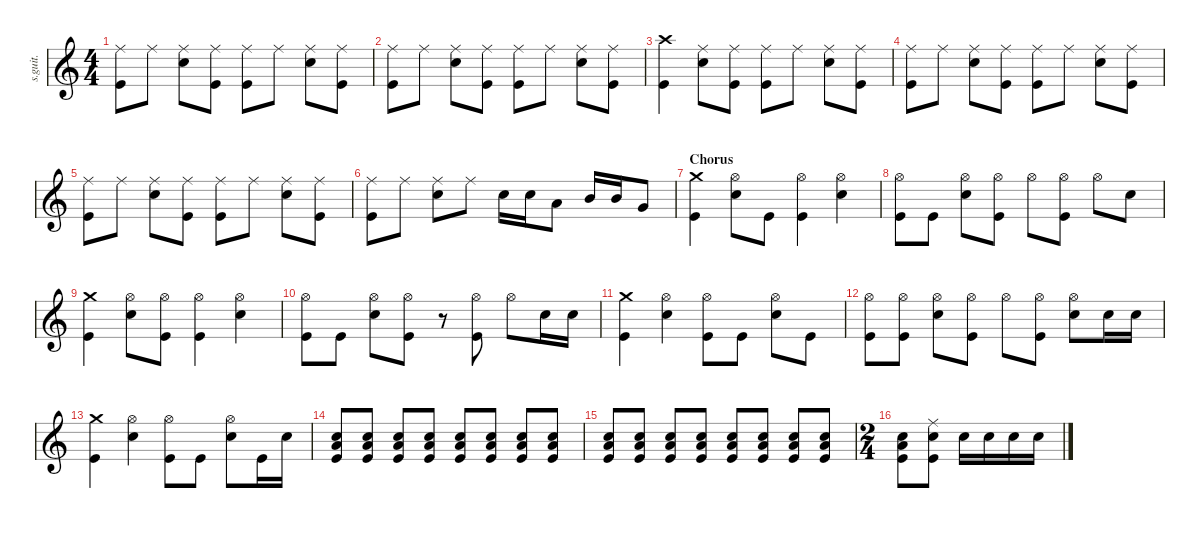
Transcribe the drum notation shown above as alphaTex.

\defaultSystemsLayout 4
\hideDynamics
\bracketExtendMode nobrackets
\track ("Chad Channing - Drums" "s.guit.") {instrument percussion}
\staff {score}
\articulation defaults
\ts (4 4)
\tempo (133 hide)
\clef g2
\ks c
("Ride (middle)" "Kick (hit)").8{lyrics (0 "") lyrics (1 "") lyrics (2 "") lyrics (3 "") lyrics (4 "") dy f} "Ride (middle)".8{lyrics (0 "") lyrics (1 "") lyrics (2 "") lyrics (3 "") lyrics (4 "")} ("Ride (middle)" "Snare (hit) 2").8{lyrics (0 "") lyrics (1 "") lyrics (2 "") lyrics (3 "") lyrics (4 "")} ("Ride (middle)" "Kick (hit)").8{lyrics (0 "") lyrics (1 "") lyrics (2 "") lyrics (3 "") lyrics (4 "")} ("Ride (middle)" "Kick (hit)").8{lyrics (0 "") lyrics (1 "") lyrics (2 "") lyrics (3 "") lyrics (4 "")} "Ride (middle)".8{lyrics (0 "") lyrics (1 "") lyrics (2 "") lyrics (3 "") lyrics (4 "")} ("Ride (middle)" "Snare (hit) 2").8{lyrics (0 "") lyrics (1 "") lyrics (2 "") lyrics (3 "") lyrics (4 "")} ("Ride (middle)" "Kick (hit)").8{lyrics (0 "") lyrics (1 "") lyrics (2 "") lyrics (3 "") lyrics (4 "")} |
("Ride (middle)" "Kick (hit)").8{lyrics (0 "") lyrics (1 "") lyrics (2 "") lyrics (3 "") lyrics (4 "")} "Ride (middle)".8{lyrics (0 "") lyrics (1 "") lyrics (2 "") lyrics (3 "") lyrics (4 "")} ("Ride (middle)" "Snare (hit) 2").8{lyrics (0 "") lyrics (1 "") lyrics (2 "") lyrics (3 "") lyrics (4 "")} ("Ride (middle)" "Kick (hit)").8{lyrics (0 "") lyrics (1 "") lyrics (2 "") lyrics (3 "") lyrics (4 "")} ("Ride (middle)" "Kick (hit)").8{lyrics (0 "") lyrics (1 "") lyrics (2 "") lyrics (3 "") lyrics (4 "")} "Ride (middle)".8{lyrics (0 "") lyrics (1 "") lyrics (2 "") lyrics (3 "") lyrics (4 "")} ("Ride (middle)" "Snare (hit) 2").8{lyrics (0 "") lyrics (1 "") lyrics (2 "") lyrics (3 "") lyrics (4 "")} ("Ride (middle)" "Kick (hit)").8{lyrics (0 "") lyrics (1 "") lyrics (2 "") lyrics (3 "") lyrics (4 "")} |
("Kick (hit)" "Crash high (hit)").4{lyrics (0 "") lyrics (1 "") lyrics (2 "") lyrics (3 "") lyrics (4 "")} ("Ride (middle)" "Snare (hit) 2").8{lyrics (0 "") lyrics (1 "") lyrics (2 "") lyrics (3 "") lyrics (4 "")} ("Ride (middle)" "Kick (hit)").8{lyrics (0 "") lyrics (1 "") lyrics (2 "") lyrics (3 "") lyrics (4 "")} ("Ride (middle)" "Kick (hit)").8{lyrics (0 "") lyrics (1 "") lyrics (2 "") lyrics (3 "") lyrics (4 "")} "Ride (middle)".8{lyrics (0 "") lyrics (1 "") lyrics (2 "") lyrics (3 "") lyrics (4 "")} ("Ride (middle)" "Snare (hit) 2").8{lyrics (0 "") lyrics (1 "") lyrics (2 "") lyrics (3 "") lyrics (4 "")} ("Ride (middle)" "Kick (hit)").8{lyrics (0 "") lyrics (1 "") lyrics (2 "") lyrics (3 "") lyrics (4 "")} |
("Ride (middle)" "Kick (hit)").8{lyrics (0 "") lyrics (1 "") lyrics (2 "") lyrics (3 "") lyrics (4 "")} "Ride (middle)".8{lyrics (0 "") lyrics (1 "") lyrics (2 "") lyrics (3 "") lyrics (4 "")} ("Ride (middle)" "Snare (hit) 2").8{lyrics (0 "") lyrics (1 "") lyrics (2 "") lyrics (3 "") lyrics (4 "")} ("Ride (middle)" "Kick (hit)").8{lyrics (0 "") lyrics (1 "") lyrics (2 "") lyrics (3 "") lyrics (4 "")} ("Ride (middle)" "Kick (hit)").8{lyrics (0 "") lyrics (1 "") lyrics (2 "") lyrics (3 "") lyrics (4 "")} "Ride (middle)".8{lyrics (0 "") lyrics (1 "") lyrics (2 "") lyrics (3 "") lyrics (4 "")} ("Ride (middle)" "Snare (hit) 2").8{lyrics (0 "") lyrics (1 "") lyrics (2 "") lyrics (3 "") lyrics (4 "")} ("Ride (middle)" "Kick (hit)").8{lyrics (0 "") lyrics (1 "") lyrics (2 "") lyrics (3 "") lyrics (4 "")} |
("Ride (middle)" "Kick (hit)").8{lyrics (0 "") lyrics (1 "") lyrics (2 "") lyrics (3 "") lyrics (4 "")} "Ride (middle)".8{lyrics (0 "") lyrics (1 "") lyrics (2 "") lyrics (3 "") lyrics (4 "")} ("Ride (middle)" "Snare (hit) 2").8{lyrics (0 "") lyrics (1 "") lyrics (2 "") lyrics (3 "") lyrics (4 "")} ("Ride (middle)" "Kick (hit)").8{lyrics (0 "") lyrics (1 "") lyrics (2 "") lyrics (3 "") lyrics (4 "")} ("Ride (middle)" "Kick (hit)").8{lyrics (0 "") lyrics (1 "") lyrics (2 "") lyrics (3 "") lyrics (4 "")} "Ride (middle)".8{lyrics (0 "") lyrics (1 "") lyrics (2 "") lyrics (3 "") lyrics (4 "")} ("Ride (middle)" "Snare (hit) 2").8{lyrics (0 "") lyrics (1 "") lyrics (2 "") lyrics (3 "") lyrics (4 "")} ("Ride (middle)" "Kick (hit)").8{lyrics (0 "") lyrics (1 "") lyrics (2 "") lyrics (3 "") lyrics (4 "")} |
("Ride (middle)" "Kick (hit)").8{lyrics (0 "") lyrics (1 "") lyrics (2 "") lyrics (3 "") lyrics (4 "")} "Ride (middle)".8{lyrics (0 "") lyrics (1 "") lyrics (2 "") lyrics (3 "") lyrics (4 "")} ("Ride (middle)" "Snare (hit) 2").8{lyrics (0 "") lyrics (1 "") lyrics (2 "") lyrics (3 "") lyrics (4 "")} "Ride (middle)".8{lyrics (0 "") lyrics (1 "") lyrics (2 "") lyrics (3 "") lyrics (4 "")} "Snare (hit) 2".16{lyrics (0 "") lyrics (1 "") lyrics (2 "") lyrics (3 "") lyrics (4 "")} "Snare (hit) 2".16{lyrics (0 "") lyrics (1 "") lyrics (2 "") lyrics (3 "") lyrics (4 "")} "Low Tom (hit)".8{lyrics (0 "") lyrics (1 "") lyrics (2 "") lyrics (3 "") lyrics (4 "")} "Mid Tom (hit)".16{lyrics (0 "") lyrics (1 "") lyrics (2 "") lyrics (3 "") lyrics (4 "")} "Mid Tom (hit)".16{lyrics (0 "") lyrics (1 "") lyrics (2 "") lyrics (3 "") lyrics (4 "")} "Very Low Tom (hit)".8{lyrics (0 "") lyrics (1 "") lyrics (2 "") lyrics (3 "") lyrics (4 "")} |
\section ("" "Chorus")
("Crash medium (hit)" "Kick (hit)").4{lyrics (0 "") lyrics (1 "") lyrics (2 "") lyrics (3 "") lyrics (4 "")} ("Hi-Hat (open)" "Snare (hit) 2").8{lyrics (0 "") lyrics (1 "") lyrics (2 "") lyrics (3 "") lyrics (4 "")} "Kick (hit)".8{lyrics (0 "") lyrics (1 "") lyrics (2 "") lyrics (3 "") lyrics (4 "")} ("Hi-Hat (open)" "Kick (hit)").4{lyrics (0 "") lyrics (1 "") lyrics (2 "") lyrics (3 "") lyrics (4 "")} ("Hi-Hat (open)" "Snare (hit) 2").4{lyrics (0 "") lyrics (1 "") lyrics (2 "") lyrics (3 "") lyrics (4 "")} |
("Hi-Hat (open)" "Kick (hit)").8{lyrics (0 "") lyrics (1 "") lyrics (2 "") lyrics (3 "") lyrics (4 "")} "Kick (hit)".8{lyrics (0 "") lyrics (1 "") lyrics (2 "") lyrics (3 "") lyrics (4 "")} ("Hi-Hat (open)" "Snare (hit) 2").8{lyrics (0 "") lyrics (1 "") lyrics (2 "") lyrics (3 "") lyrics (4 "")} ("Hi-Hat (open)" "Kick (hit)").8{lyrics (0 "") lyrics (1 "") lyrics (2 "") lyrics (3 "") lyrics (4 "")} "Hi-Hat (open)".8{lyrics (0 "") lyrics (1 "") lyrics (2 "") lyrics (3 "") lyrics (4 "")} ("Hi-Hat (open)" "Kick (hit)").8{lyrics (0 "") lyrics (1 "") lyrics (2 "") lyrics (3 "") lyrics (4 "")} "Hi-Hat (open)".8{lyrics (0 "") lyrics (1 "") lyrics (2 "") lyrics (3 "") lyrics (4 "")} "Snare (hit) 2".8{lyrics (0 "") lyrics (1 "") lyrics (2 "") lyrics (3 "") lyrics (4 "")} |
("Crash medium (hit)" "Kick (hit)").4{lyrics (0 "") lyrics (1 "") lyrics (2 "") lyrics (3 "") lyrics (4 "")} ("Hi-Hat (open)" "Snare (hit) 2").8{lyrics (0 "") lyrics (1 "") lyrics (2 "") lyrics (3 "") lyrics (4 "")} ("Hi-Hat (open)" "Kick (hit)").8{lyrics (0 "") lyrics (1 "") lyrics (2 "") lyrics (3 "") lyrics (4 "")} ("Hi-Hat (open)" "Kick (hit)").4{lyrics (0 "") lyrics (1 "") lyrics (2 "") lyrics (3 "") lyrics (4 "")} ("Hi-Hat (open)" "Snare (hit) 2").4{lyrics (0 "") lyrics (1 "") lyrics (2 "") lyrics (3 "") lyrics (4 "")} |
("Hi-Hat (open)" "Kick (hit)").8{lyrics (0 "") lyrics (1 "") lyrics (2 "") lyrics (3 "") lyrics (4 "")} "Kick (hit)".8{lyrics (0 "") lyrics (1 "") lyrics (2 "") lyrics (3 "") lyrics (4 "")} ("Hi-Hat (open)" "Snare (hit) 2").8{lyrics (0 "") lyrics (1 "") lyrics (2 "") lyrics (3 "") lyrics (4 "")} ("Hi-Hat (open)" "Kick (hit)").8{lyrics (0 "") lyrics (1 "") lyrics (2 "") lyrics (3 "") lyrics (4 "")} r.8 ("Hi-Hat (open)" "Kick (hit)").8{lyrics (0 "") lyrics (1 "") lyrics (2 "") lyrics (3 "") lyrics (4 "")} "Hi-Hat (open)".8{lyrics (0 "") lyrics (1 "") lyrics (2 "") lyrics (3 "") lyrics (4 "")} "Snare (hit) 2".16{lyrics (0 "") lyrics (1 "") lyrics (2 "") lyrics (3 "") lyrics (4 "")} "Snare (hit) 2".16{lyrics (0 "") lyrics (1 "") lyrics (2 "") lyrics (3 "") lyrics (4 "")} |
("Crash medium (hit)" "Kick (hit)").4{lyrics (0 "") lyrics (1 "") lyrics (2 "") lyrics (3 "") lyrics (4 "")} ("Hi-Hat (open)" "Snare (hit) 2").4{lyrics (0 "") lyrics (1 "") lyrics (2 "") lyrics (3 "") lyrics (4 "")} ("Hi-Hat (open)" "Kick (hit)").8{lyrics (0 "") lyrics (1 "") lyrics (2 "") lyrics (3 "") lyrics (4 "")} "Kick (hit)".8{lyrics (0 "") lyrics (1 "") lyrics (2 "") lyrics (3 "") lyrics (4 "")} ("Hi-Hat (open)" "Snare (hit) 2").8{lyrics (0 "") lyrics (1 "") lyrics (2 "") lyrics (3 "") lyrics (4 "")} "Kick (hit)".8{lyrics (0 "") lyrics (1 "") lyrics (2 "") lyrics (3 "") lyrics (4 "")} |
("Hi-Hat (open)" "Kick (hit)").8{lyrics (0 "") lyrics (1 "") lyrics (2 "") lyrics (3 "") lyrics (4 "")} ("Hi-Hat (open)" "Kick (hit)").8{lyrics (0 "") lyrics (1 "") lyrics (2 "") lyrics (3 "") lyrics (4 "")} ("Hi-Hat (open)" "Snare (hit) 2").8{lyrics (0 "") lyrics (1 "") lyrics (2 "") lyrics (3 "") lyrics (4 "")} ("Hi-Hat (open)" "Kick (hit)").8{lyrics (0 "") lyrics (1 "") lyrics (2 "") lyrics (3 "") lyrics (4 "")} "Hi-Hat (open)".8{lyrics (0 "") lyrics (1 "") lyrics (2 "") lyrics (3 "") lyrics (4 "")} ("Hi-Hat (open)" "Kick (hit)").8{lyrics (0 "") lyrics (1 "") lyrics (2 "") lyrics (3 "") lyrics (4 "")} ("Hi-Hat (open)" "Snare (hit) 2").8{lyrics (0 "") lyrics (1 "") lyrics (2 "") lyrics (3 "") lyrics (4 "")} "Snare (hit) 2".16{lyrics (0 "") lyrics (1 "") lyrics (2 "") lyrics (3 "") lyrics (4 "")} "Snare (hit) 2".16{lyrics (0 "") lyrics (1 "") lyrics (2 "") lyrics (3 "") lyrics (4 "")} |
("Crash medium (hit)" "Kick (hit)").4{lyrics (0 "") lyrics (1 "") lyrics (2 "") lyrics (3 "") lyrics (4 "")} ("Hi-Hat (open)" "Snare (hit) 2").4{lyrics (0 "") lyrics (1 "") lyrics (2 "") lyrics (3 "") lyrics (4 "")} ("Hi-Hat (open)" "Kick (hit)").8{lyrics (0 "") lyrics (1 "") lyrics (2 "") lyrics (3 "") lyrics (4 "")} "Kick (hit)".8{lyrics (0 "") lyrics (1 "") lyrics (2 "") lyrics (3 "") lyrics (4 "")} ("Hi-Hat (open)" "Snare (hit) 2").8{lyrics (0 "") lyrics (1 "") lyrics (2 "") lyrics (3 "") lyrics (4 "")} "Kick (hit)".16{lyrics (0 "") lyrics (1 "") lyrics (2 "") lyrics (3 "") lyrics (4 "")} "Snare (hit) 2".16{lyrics (0 "") lyrics (1 "") lyrics (2 "") lyrics (3 "") lyrics (4 "")} |
("Snare (hit) 2" "Low Floor Tom (hit)" "Kick (hit)").8{lyrics (0 "") lyrics (1 "") lyrics (2 "") lyrics (3 "") lyrics (4 "")} ("Snare (hit) 2" "Low Floor Tom (hit)" "Kick (hit)").8{lyrics (0 "") lyrics (1 "") lyrics (2 "") lyrics (3 "") lyrics (4 "")} ("Snare (hit) 2" "Low Floor Tom (hit)" "Kick (hit)").8{lyrics (0 "") lyrics (1 "") lyrics (2 "") lyrics (3 "") lyrics (4 "")} ("Snare (hit) 2" "Low Floor Tom (hit)" "Kick (hit)").8{lyrics (0 "") lyrics (1 "") lyrics (2 "") lyrics (3 "") lyrics (4 "")} ("Snare (hit) 2" "Low Floor Tom (hit)" "Kick (hit)").8{lyrics (0 "") lyrics (1 "") lyrics (2 "") lyrics (3 "") lyrics (4 "")} ("Snare (hit) 2" "Low Floor Tom (hit)" "Kick (hit)").8{lyrics (0 "") lyrics (1 "") lyrics (2 "") lyrics (3 "") lyrics (4 "")} ("Snare (hit) 2" "Low Floor Tom (hit)" "Kick (hit)").8{lyrics (0 "") lyrics (1 "") lyrics (2 "") lyrics (3 "") lyrics (4 "")} ("Snare (hit) 2" "Low Floor Tom (hit)" "Kick (hit)").8{lyrics (0 "") lyrics (1 "") lyrics (2 "") lyrics (3 "") lyrics (4 "")} |
("Snare (hit) 2" "Low Floor Tom (hit)" "Kick (hit)").8{lyrics (0 "") lyrics (1 "") lyrics (2 "") lyrics (3 "") lyrics (4 "")} ("Snare (hit) 2" "Low Floor Tom (hit)" "Kick (hit)").8{lyrics (0 "") lyrics (1 "") lyrics (2 "") lyrics (3 "") lyrics (4 "")} ("Snare (hit) 2" "Low Floor Tom (hit)" "Kick (hit)").8{lyrics (0 "") lyrics (1 "") lyrics (2 "") lyrics (3 "") lyrics (4 "")} ("Snare (hit) 2" "Low Floor Tom (hit)" "Kick (hit)").8{lyrics (0 "") lyrics (1 "") lyrics (2 "") lyrics (3 "") lyrics (4 "")} ("Snare (hit) 2" "Low Floor Tom (hit)" "Kick (hit)").8{lyrics (0 "") lyrics (1 "") lyrics (2 "") lyrics (3 "") lyrics (4 "")} ("Snare (hit) 2" "Low Floor Tom (hit)" "Kick (hit)").8{lyrics (0 "") lyrics (1 "") lyrics (2 "") lyrics (3 "") lyrics (4 "")} ("Snare (hit) 2" "Low Floor Tom (hit)" "Kick (hit)").8{lyrics (0 "") lyrics (1 "") lyrics (2 "") lyrics (3 "") lyrics (4 "")} ("Snare (hit) 2" "Low Floor Tom (hit)" "Kick (hit)").8{lyrics (0 "") lyrics (1 "") lyrics (2 "") lyrics (3 "") lyrics (4 "")} |
\ts (2 4)
\beaming (8 2 2 2 2)
("Snare (hit) 2" "Low Floor Tom (hit)" "Kick (hit)").8{lyrics (0 "") lyrics (1 "") lyrics (2 "") lyrics (3 "") lyrics (4 "")} ("Snare (hit) 2" "Ride (middle)" "Kick (hit)").8{lyrics (0 "") lyrics (1 "") lyrics (2 "") lyrics (3 "") lyrics (4 "")} "Snare (hit) 2".16{lyrics (0 "") lyrics (1 "") lyrics (2 "") lyrics (3 "") lyrics (4 "")} "Snare (hit) 2".16{lyrics (0 "") lyrics (1 "") lyrics (2 "") lyrics (3 "") lyrics (4 "")} "Snare (hit) 2".16{lyrics (0 "") lyrics (1 "") lyrics (2 "") lyrics (3 "") lyrics (4 "")} "Snare (hit) 2".16{lyrics (0 "") lyrics (1 "") lyrics (2 "") lyrics (3 "") lyrics (4 "")}
